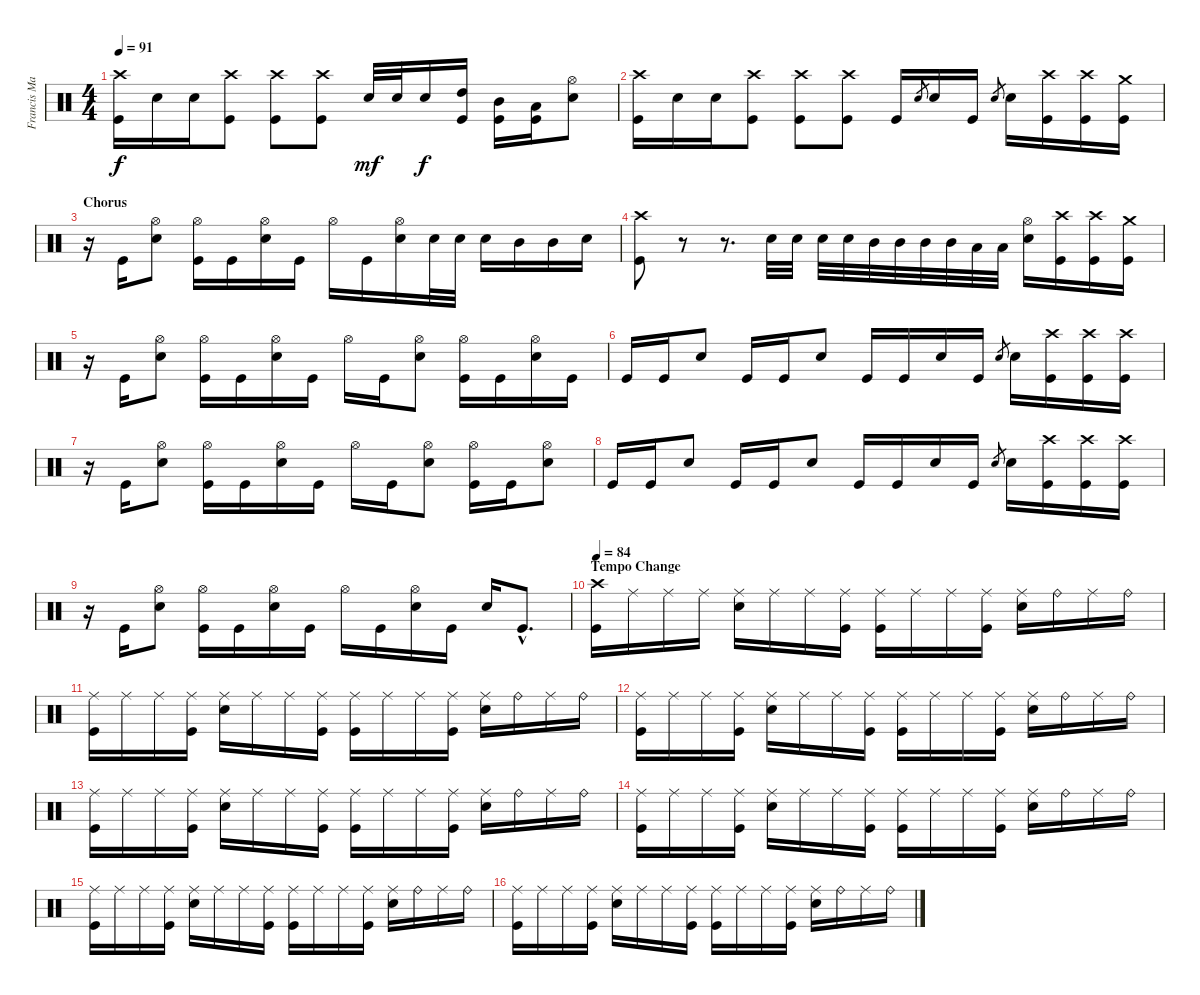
\track ("Francis Mark" "Francis Ma") {instrument percussion}
\staff {score}
\articulation defaults
\ts (4 4)
\tempo 91
\clef neutral
\ks c
("Crash high (hit)" "Kick (hit)").16{dy f} "Electric Snare (hit)".16 "Electric Snare (hit)".16 ("Crash high (hit)" "Kick (hit)").8 ("Crash high (hit)" "Kick (hit)").8 ("Crash high (hit)" "Kick (hit)").8 "Electric Snare (hit)".32{dy mf} "Electric Snare (hit)".32 "Electric Snare (hit)".16{dy f} ("High Tom (hit)" "Kick (hit)").16 ("Mid Tom (hit)" "Kick (hit)").16 ("Low Tom (hit)" "Kick (hit)").16 ("Hi-Hat (open)" "Electric Snare (hit)").8 |
("Crash high (hit)" "Kick (hit)").16 "Electric Snare (hit)".16 "Electric Snare (hit)".16 ("Crash high (hit)" "Kick (hit)").8 ("Crash high (hit)" "Kick (hit)").8 ("Crash high (hit)" "Kick (hit)").8 "Kick (hit)".16 "Electric Snare (hit)".8{gr} "Electric Snare (hit)".16 "Kick (hit)".16 "Electric Snare (hit)".8{gr} "Electric Snare (hit)".16 ("Crash high (hit)" "Kick (hit)").16 ("Crash high (hit)" "Kick (hit)").16 ("Crash medium (hit)" "Kick (hit)").16 |
\section ("" "Chorus")
r.16 "Kick (hit)".16 ("Hi-Hat (open)" "Electric Snare (hit)").8 ("Hi-Hat (open)" "Kick (hit)").16 "Kick (hit)".16 ("Hi-Hat (open)" "Electric Snare (hit)").16 "Kick (hit)".16 "Hi-Hat (open)".16 "Kick (hit)".16 ("Hi-Hat (open)" "Electric Snare (hit)").16 "Electric Snare (hit)".32 "Electric Snare (hit)".32 "Electric Snare (hit)".16 "Mid Tom (hit)".16 "Mid Tom (hit)".16 "Electric Snare (hit)".16 |
("Crash high (hit)" "Kick (hit)").8 r.8{volume 0} r.8{d} "Electric Snare (hit)".32{volume 13} "Electric Snare (hit)".32 "Electric Snare (hit)".32 "Electric Snare (hit)".32 "Mid Tom (hit)".32 "Mid Tom (hit)".32 "Mid Tom (hit)".32 "Mid Tom (hit)".32 "Low Tom (hit)".32 "Low Tom (hit)".32 ("Hi-Hat (open)" "Electric Snare (hit)").16 ("Crash high (hit)" "Kick (hit)").16 ("Crash high (hit)" "Kick (hit)").16 ("Crash medium (hit)" "Kick (hit)").16 |
r.16 "Kick (hit)".16 ("Hi-Hat (open)" "Electric Snare (hit)").8 ("Hi-Hat (open)" "Kick (hit)").16 "Kick (hit)".16 ("Hi-Hat (open)" "Electric Snare (hit)").16 "Kick (hit)".16 "Hi-Hat (open)".16 "Kick (hit)".16 ("Hi-Hat (open)" "Electric Snare (hit)").8 ("Hi-Hat (open)" "Kick (hit)").16 "Kick (hit)".16 ("Hi-Hat (open)" "Electric Snare (hit)").16 "Kick (hit)".16 |
"Kick (hit)".16 "Kick (hit)".16 "Electric Snare (hit)".8 "Kick (hit)".16 "Kick (hit)".16 "Electric Snare (hit)".8 "Kick (hit)".16 "Kick (hit)".16 "Electric Snare (hit)".16 "Kick (hit)".16 "Electric Snare (hit)".8{gr} "Electric Snare (hit)".16 ("Crash high (hit)" "Kick (hit)").16 ("Crash high (hit)" "Kick (hit)").16 ("Crash high (hit)" "Kick (hit)").16 |
r.16 "Kick (hit)".16 ("Hi-Hat (open)" "Electric Snare (hit)").8 ("Hi-Hat (open)" "Kick (hit)").16 "Kick (hit)".16 ("Hi-Hat (open)" "Electric Snare (hit)").16 "Kick (hit)".16 "Hi-Hat (open)".16 "Kick (hit)".16 ("Hi-Hat (open)" "Electric Snare (hit)").8 ("Hi-Hat (open)" "Kick (hit)").16 "Kick (hit)".16 ("Hi-Hat (open)" "Electric Snare (hit)").8 |
"Kick (hit)".16 "Kick (hit)".16 "Electric Snare (hit)".8 "Kick (hit)".16 "Kick (hit)".16 "Electric Snare (hit)".8 "Kick (hit)".16 "Kick (hit)".16 "Electric Snare (hit)".16 "Kick (hit)".16 "Electric Snare (hit)".8{gr} "Electric Snare (hit)".16 ("Crash high (hit)" "Kick (hit)").16 ("Crash high (hit)" "Kick (hit)").16 ("Crash high (hit)" "Kick (hit)").16 |
r.16 "Kick (hit)".16 ("Hi-Hat (open)" "Electric Snare (hit)").8 ("Hi-Hat (open)" "Kick (hit)").16 "Kick (hit)".16 ("Hi-Hat (open)" "Electric Snare (hit)").16 "Kick (hit)".16 "Hi-Hat (open)".16 "Kick (hit)".16 ("Hi-Hat (open)" "Electric Snare (hit)").16 "Kick (hit)".16 "Electric Snare (hit)".16 "Kick (hit)"{hac}.8{d} |
\section ("" "Tempo Change")
\tempo 84
("Crash high (hit)" "Kick (hit)").16 "Ride (middle)".16 "Ride (middle)".16 "Ride (middle)".16 ("Ride (middle)" "Electric Snare (hit)").16 "Ride (middle)".16 "Ride (middle)".16 ("Ride (middle)" "Kick (hit)").16 ("Ride (middle)" "Kick (hit)").16 "Ride (middle)".16 "Ride (middle)".16 ("Ride (middle)" "Kick (hit)").16 ("Ride (middle)" "Electric Snare (hit)").16 "Ride (bell)".16 "Ride (middle)".16 "Ride (bell)".16 |
("Ride (middle)" "Kick (hit)").16 "Ride (middle)".16 "Ride (middle)".16 ("Ride (middle)" "Kick (hit)").16 ("Ride (middle)" "Electric Snare (hit)").16 "Ride (middle)".16 "Ride (middle)".16 ("Ride (middle)" "Kick (hit)").16 ("Ride (middle)" "Kick (hit)").16 "Ride (middle)".16 "Ride (middle)".16 ("Ride (middle)" "Kick (hit)").16 ("Ride (middle)" "Electric Snare (hit)").16 "Ride (bell)".16 "Ride (middle)".16 "Ride (bell)".16 |
("Ride (middle)" "Kick (hit)").16 "Ride (middle)".16 "Ride (middle)".16 ("Ride (middle)" "Kick (hit)").16 ("Ride (middle)" "Electric Snare (hit)").16 "Ride (middle)".16 "Ride (middle)".16 ("Ride (middle)" "Kick (hit)").16 ("Ride (middle)" "Kick (hit)").16 "Ride (middle)".16 "Ride (middle)".16 ("Ride (middle)" "Kick (hit)").16 ("Ride (middle)" "Electric Snare (hit)").16 "Ride (bell)".16 "Ride (middle)".16 "Ride (bell)".16 |
("Ride (middle)" "Kick (hit)").16 "Ride (middle)".16 "Ride (middle)".16 ("Ride (middle)" "Kick (hit)").16 ("Ride (middle)" "Electric Snare (hit)").16 "Ride (middle)".16 "Ride (middle)".16 ("Ride (middle)" "Kick (hit)").16 ("Ride (middle)" "Kick (hit)").16 "Ride (middle)".16 "Ride (middle)".16 ("Ride (middle)" "Kick (hit)").16 ("Ride (middle)" "Electric Snare (hit)").16 "Ride (bell)".16 "Ride (middle)".16 "Ride (bell)".16 |
("Ride (middle)" "Kick (hit)").16 "Ride (middle)".16 "Ride (middle)".16 ("Ride (middle)" "Kick (hit)").16 ("Ride (middle)" "Electric Snare (hit)").16 "Ride (middle)".16 "Ride (middle)".16 ("Ride (middle)" "Kick (hit)").16 ("Ride (middle)" "Kick (hit)").16 "Ride (middle)".16 "Ride (middle)".16 ("Ride (middle)" "Kick (hit)").16 ("Ride (middle)" "Electric Snare (hit)").16 "Ride (bell)".16 "Ride (middle)".16 "Ride (bell)".16 |
("Ride (middle)" "Kick (hit)").16 "Ride (middle)".16 "Ride (middle)".16 ("Ride (middle)" "Kick (hit)").16 ("Ride (middle)" "Electric Snare (hit)").16 "Ride (middle)".16 "Ride (middle)".16 ("Ride (middle)" "Kick (hit)").16 ("Ride (middle)" "Kick (hit)").16 "Ride (middle)".16 "Ride (middle)".16 ("Ride (middle)" "Kick (hit)").16 ("Ride (middle)" "Electric Snare (hit)").16 "Ride (bell)".16 "Ride (middle)".16 "Ride (bell)".16 |
("Ride (middle)" "Kick (hit)").16 "Ride (middle)".16 "Ride (middle)".16 ("Ride (middle)" "Kick (hit)").16 ("Ride (middle)" "Electric Snare (hit)").16 "Ride (middle)".16 "Ride (middle)".16 ("Ride (middle)" "Kick (hit)").16 ("Ride (middle)" "Kick (hit)").16 "Ride (middle)".16 "Ride (middle)".16 ("Ride (middle)" "Kick (hit)").16 ("Ride (middle)" "Electric Snare (hit)").16 "Ride (bell)".16 "Ride (middle)".16 "Ride (bell)".16
